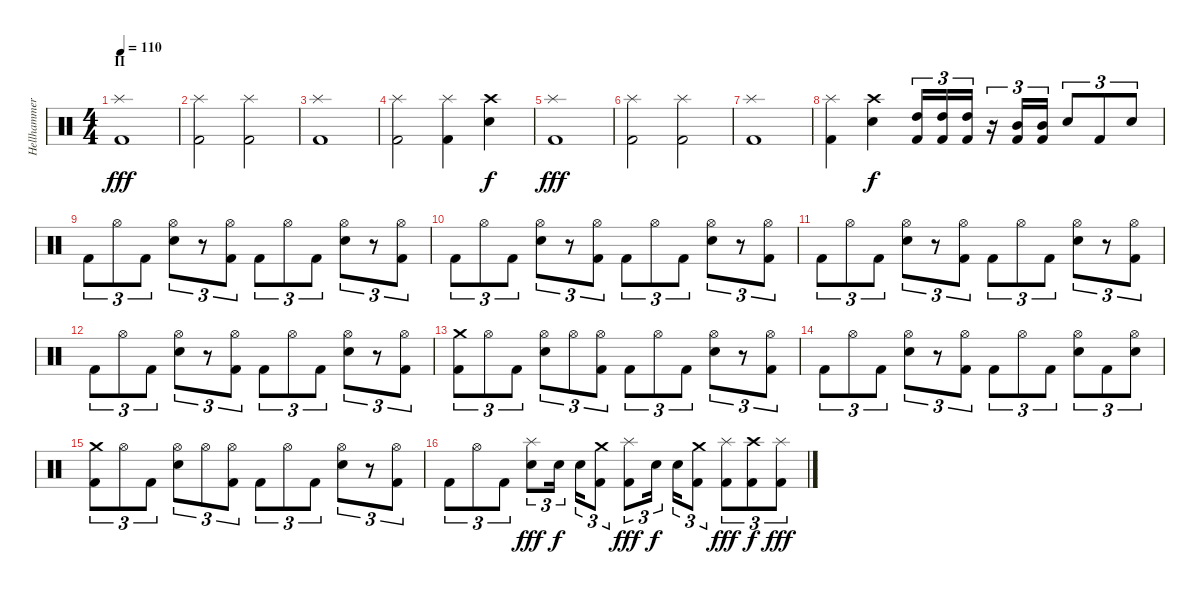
\track ("Hellhammer" "Hellhammer") {instrument percussion}
\staff {score}
\articulation defaults
\ts (4 4)
\section ("" "II")
\tempo 110
\clef neutral
\ks c
("Kick (hit) 2" "Splash (hit)").1{dy fff} |
("Kick (hit) 2" "Splash (hit)").2 ("Kick (hit) 2" "Splash (hit)").2 |
("Kick (hit) 2" "Splash (hit)").1 |
("Kick (hit) 2" "Splash (hit)").2 ("Kick (hit) 2" "Splash (hit)").4 ("Electric Snare (hit)" "Crash high (hit)").4{dy f} |
("Kick (hit) 2" "Splash (hit)").1{dy fff} |
("Kick (hit) 2" "Splash (hit)").2 ("Kick (hit) 2" "Splash (hit)").2 |
("Kick (hit) 2" "Splash (hit)").1 |
("Kick (hit) 2" "Splash (hit)").4 ("Electric Snare (hit)" "Crash high (hit)").4{dy f} ("Kick (hit) 2" "High Tom (hit)").16{tu (3 2)} ("Kick (hit) 2" "High Tom (hit)").16{tu (3 2)} ("Kick (hit) 2" "High Tom (hit)").16{tu (3 2)} r.16{tu (3 2)} ("Kick (hit) 2" "Mid Tom (hit)").16{tu (3 2)} ("Kick (hit) 2" "Mid Tom (hit)").16{tu (3 2)} "Electric Snare (hit)".8{tu (3 2)} "Kick (hit) 2".8{tu (3 2)} "Electric Snare (hit)".8{tu (3 2)} |
"Kick (hit) 2".8{tu (3 2)} "Hi-Hat (open)".8{tu (3 2)} "Kick (hit) 2".8{tu (3 2)} ("Electric Snare (hit)" "Hi-Hat (open)").8{tu (3 2)} r.8{tu (3 2)} ("Kick (hit) 2" "Hi-Hat (open)").8{tu (3 2)} "Kick (hit) 2".8{tu (3 2)} "Hi-Hat (open)".8{tu (3 2)} "Kick (hit) 2".8{tu (3 2)} ("Electric Snare (hit)" "Hi-Hat (open)").8{tu (3 2)} r.8{tu (3 2)} ("Kick (hit) 2" "Hi-Hat (open)").8{tu (3 2)} |
"Kick (hit) 2".8{tu (3 2)} "Hi-Hat (open)".8{tu (3 2)} "Kick (hit) 2".8{tu (3 2)} ("Electric Snare (hit)" "Hi-Hat (open)").8{tu (3 2)} r.8{tu (3 2)} ("Kick (hit) 2" "Hi-Hat (open)").8{tu (3 2)} "Kick (hit) 2".8{tu (3 2)} "Hi-Hat (open)".8{tu (3 2)} "Kick (hit) 2".8{tu (3 2)} ("Electric Snare (hit)" "Hi-Hat (open)").8{tu (3 2)} r.8{tu (3 2)} ("Kick (hit) 2" "Hi-Hat (open)").8{tu (3 2)} |
"Kick (hit) 2".8{tu (3 2)} "Hi-Hat (open)".8{tu (3 2)} "Kick (hit) 2".8{tu (3 2)} ("Electric Snare (hit)" "Hi-Hat (open)").8{tu (3 2)} r.8{tu (3 2)} ("Kick (hit) 2" "Hi-Hat (open)").8{tu (3 2)} "Kick (hit) 2".8{tu (3 2)} "Hi-Hat (open)".8{tu (3 2)} "Kick (hit) 2".8{tu (3 2)} ("Electric Snare (hit)" "Hi-Hat (open)").8{tu (3 2)} r.8{tu (3 2)} ("Kick (hit) 2" "Hi-Hat (open)").8{tu (3 2)} |
"Kick (hit) 2".8{tu (3 2)} "Hi-Hat (open)".8{tu (3 2)} "Kick (hit) 2".8{tu (3 2)} ("Electric Snare (hit)" "Hi-Hat (open)").8{tu (3 2)} r.8{tu (3 2)} ("Kick (hit) 2" "Hi-Hat (open)").8{tu (3 2)} "Kick (hit) 2".8{tu (3 2)} "Hi-Hat (open)".8{tu (3 2)} "Kick (hit) 2".8{tu (3 2)} ("Electric Snare (hit)" "Hi-Hat (open)").8{tu (3 2)} r.8{tu (3 2)} ("Kick (hit) 2" "Hi-Hat (open)").8{tu (3 2)} |
("Kick (hit) 2" "Crash medium (hit)").8{tu (3 2)} "Hi-Hat (open)".8{tu (3 2)} "Kick (hit) 2".8{tu (3 2)} ("Electric Snare (hit)" "Hi-Hat (open)").8{tu (3 2)} "Hi-Hat (open)".8{tu (3 2)} ("Kick (hit) 2" "Hi-Hat (open)").8{tu (3 2)} "Kick (hit) 2".8{tu (3 2)} "Hi-Hat (open)".8{tu (3 2)} "Kick (hit) 2".8{tu (3 2)} ("Electric Snare (hit)" "Hi-Hat (open)").8{tu (3 2)} r.8{tu (3 2)} ("Kick (hit) 2" "Hi-Hat (open)").8{tu (3 2)} |
"Kick (hit) 2".8{tu (3 2)} "Hi-Hat (open)".8{tu (3 2)} "Kick (hit) 2".8{tu (3 2)} ("Electric Snare (hit)" "Hi-Hat (open)").8{tu (3 2)} r.8{tu (3 2)} ("Kick (hit) 2" "Hi-Hat (open)").8{tu (3 2)} "Kick (hit) 2".8{tu (3 2)} "Hi-Hat (open)".8{tu (3 2)} "Kick (hit) 2".8{tu (3 2)} ("Electric Snare (hit)" "Hi-Hat (open)").8{tu (3 2)} "Kick (hit) 2".8{tu (3 2)} ("Electric Snare (hit)" "Hi-Hat (open)").8{tu (3 2)} |
("Kick (hit) 2" "Crash medium (hit)").8{tu (3 2)} "Hi-Hat (open)".8{tu (3 2)} "Kick (hit) 2".8{tu (3 2)} ("Electric Snare (hit)" "Hi-Hat (open)").8{tu (3 2)} "Hi-Hat (open)".8{tu (3 2)} ("Kick (hit) 2" "Hi-Hat (open)").8{tu (3 2)} "Kick (hit) 2".8{tu (3 2)} "Hi-Hat (open)".8{tu (3 2)} "Kick (hit) 2".8{tu (3 2)} ("Electric Snare (hit)" "Hi-Hat (open)").8{tu (3 2)} r.8{tu (3 2)} ("Kick (hit) 2" "Hi-Hat (open)").8{tu (3 2)} |
"Kick (hit) 2".8{tu (3 2)} "Hi-Hat (open)".8{tu (3 2)} "Kick (hit) 2".8{tu (3 2)} ("Electric Snare (hit)" "Splash (hit)").8{tu (3 2) dy fff} "Electric Snare (hit)".16{tu (3 2) dy f} "Electric Snare (hit)".16{tu (3 2)} ("Kick (hit) 2" "Crash medium (hit)").8{tu (3 2)} ("Kick (hit) 2" "Splash (hit)").8{tu (3 2) dy fff} "Electric Snare (hit)".16{tu (3 2) dy f} "Electric Snare (hit)".16{tu (3 2)} ("Kick (hit) 2" "Crash medium (hit)").8{tu (3 2)} ("Kick (hit) 2" "Splash (hit)").8{tu (3 2) dy fff} ("Kick (hit) 2" "Crash high (hit)").8{tu (3 2) dy f} ("Kick (hit) 2" "Splash (hit)").8{tu (3 2) dy fff}
